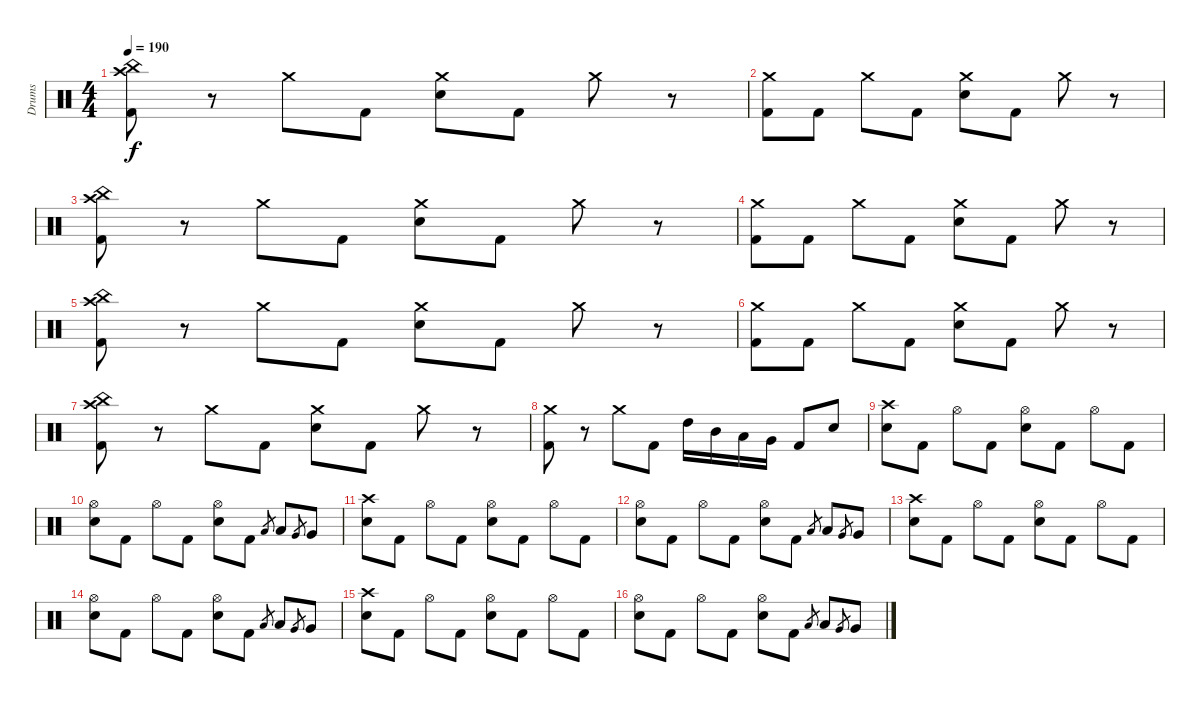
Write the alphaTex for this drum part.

\track ("Drums" "Drums") {instrument percussion}
\staff {score}
\articulation defaults
\ts (4 4)
\tempo 190
\clef neutral
\ks c
("Crash high (hit)" "China (hit)" "Kick (hit) 2").8{dy f} r.8 "Crash medium (hit)".8 "Kick (hit) 2".8 ("Crash medium (hit)" "Electric Snare (hit)").8 "Kick (hit) 2".8 "Crash medium (hit)".8 r.8 |
("Crash medium (hit)" "Kick (hit) 2").8 "Kick (hit) 2".8 "Crash medium (hit)".8 "Kick (hit) 2".8 ("Crash medium (hit)" "Electric Snare (hit)").8 "Kick (hit) 2".8 "Crash medium (hit)".8 r.8 |
("Crash high (hit)" "China (hit)" "Kick (hit) 2").8 r.8 "Crash medium (hit)".8 "Kick (hit) 2".8 ("Crash medium (hit)" "Electric Snare (hit)").8 "Kick (hit) 2".8 "Crash medium (hit)".8 r.8 |
("Crash medium (hit)" "Kick (hit) 2").8 "Kick (hit) 2".8 "Crash medium (hit)".8 "Kick (hit) 2".8 ("Crash medium (hit)" "Electric Snare (hit)").8 "Kick (hit) 2".8 "Crash medium (hit)".8 r.8 |
("Crash high (hit)" "China (hit)" "Kick (hit) 2").8 r.8 "Crash medium (hit)".8 "Kick (hit) 2".8 ("Crash medium (hit)" "Electric Snare (hit)").8 "Kick (hit) 2".8 "Crash medium (hit)".8 r.8 |
("Crash medium (hit)" "Kick (hit) 2").8 "Kick (hit) 2".8 "Crash medium (hit)".8 "Kick (hit) 2".8 ("Crash medium (hit)" "Electric Snare (hit)").8 "Kick (hit) 2".8 "Crash medium (hit)".8 r.8 |
("Crash high (hit)" "China (hit)" "Kick (hit) 2").8 r.8 "Crash medium (hit)".8 "Kick (hit) 2".8 ("Crash medium (hit)" "Electric Snare (hit)").8 "Kick (hit) 2".8 "Crash medium (hit)".8 r.8 |
("Crash medium (hit)" "Kick (hit) 2").8 r.8 "Crash medium (hit)".8 "Kick (hit) 2".8 "High Tom (hit)".16 "Mid Tom (hit)".16 "Low Tom (hit)".16 "Very Low Tom (hit)".16 "Kick (hit) 2".8 "Electric Snare (hit)".8 |
("Crash high (hit)" "Electric Snare (hit)").8 "Kick (hit) 2".8 "Hi-Hat (open)".8 "Kick (hit) 2".8 ("Hi-Hat (open)" "Electric Snare (hit)").8 "Kick (hit) 2".8 "Hi-Hat (open)".8 "Kick (hit) 2".8 |
("Hi-Hat (open)" "Electric Snare (hit)").8 "Kick (hit) 2".8 "Hi-Hat (open)".8 "Kick (hit) 2".8 ("Hi-Hat (open)" "Electric Snare (hit)").8 "Kick (hit) 2".8 "Low Tom (hit)".8{gr} "Low Tom (hit)".8 "Very Low Tom (hit)".8{gr} "Very Low Tom (hit)".8 |
("Crash high (hit)" "Electric Snare (hit)").8 "Kick (hit) 2".8 "Hi-Hat (open)".8 "Kick (hit) 2".8 ("Hi-Hat (open)" "Electric Snare (hit)").8 "Kick (hit) 2".8 "Hi-Hat (open)".8 "Kick (hit) 2".8 |
("Hi-Hat (open)" "Electric Snare (hit)").8 "Kick (hit) 2".8 "Hi-Hat (open)".8 "Kick (hit) 2".8 ("Hi-Hat (open)" "Electric Snare (hit)").8 "Kick (hit) 2".8 "Low Tom (hit)".8{gr} "Low Tom (hit)".8 "Very Low Tom (hit)".8{gr} "Very Low Tom (hit)".8 |
("Crash high (hit)" "Electric Snare (hit)").8 "Kick (hit) 2".8 "Hi-Hat (open)".8 "Kick (hit) 2".8 ("Hi-Hat (open)" "Electric Snare (hit)").8 "Kick (hit) 2".8 "Hi-Hat (open)".8 "Kick (hit) 2".8 |
("Hi-Hat (open)" "Electric Snare (hit)").8 "Kick (hit) 2".8 "Hi-Hat (open)".8 "Kick (hit) 2".8 ("Hi-Hat (open)" "Electric Snare (hit)").8 "Kick (hit) 2".8 "Low Tom (hit)".8{gr} "Low Tom (hit)".8 "Very Low Tom (hit)".8{gr} "Very Low Tom (hit)".8 |
("Crash high (hit)" "Electric Snare (hit)").8 "Kick (hit) 2".8 "Hi-Hat (open)".8 "Kick (hit) 2".8 ("Hi-Hat (open)" "Electric Snare (hit)").8 "Kick (hit) 2".8 "Hi-Hat (open)".8 "Kick (hit) 2".8 |
("Hi-Hat (open)" "Electric Snare (hit)").8 "Kick (hit) 2".8 "Hi-Hat (open)".8 "Kick (hit) 2".8 ("Hi-Hat (open)" "Electric Snare (hit)").8 "Kick (hit) 2".8 "Low Tom (hit)".8{gr} "Low Tom (hit)".8 "Very Low Tom (hit)".8{gr} "Very Low Tom (hit)".8
